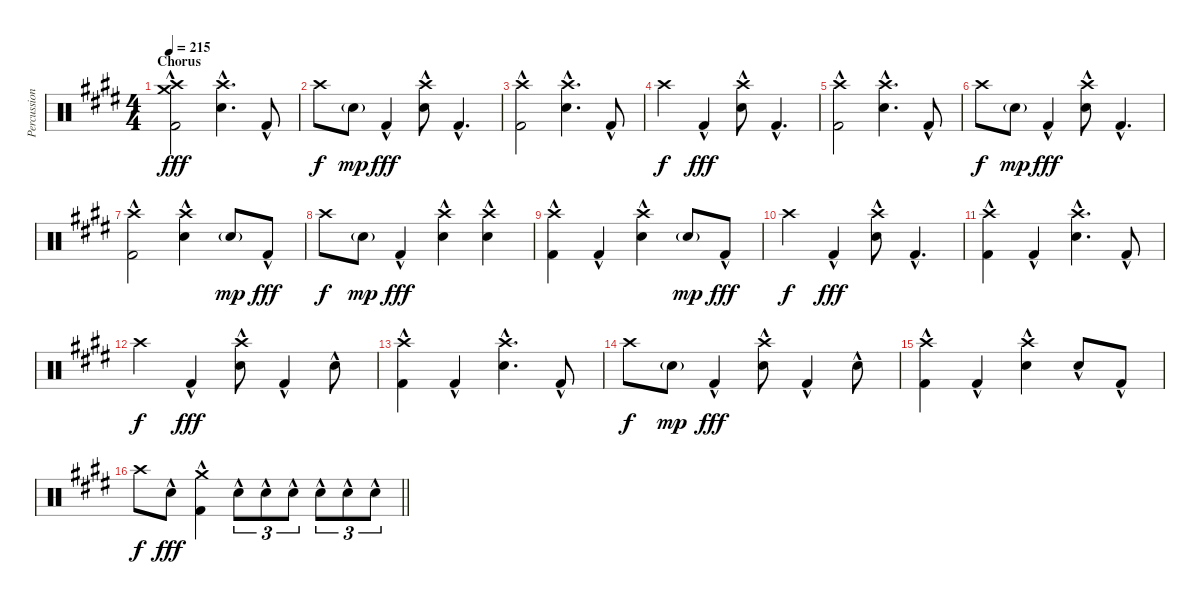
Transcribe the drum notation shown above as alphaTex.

\track ("Percussion" "Percussion") {instrument percussion}
\staff {score}
\articulation defaults
\ts (4 4)
\section ("" "Chorus")
\tempo 215
\clef neutral
\ks e
("Crash high (hit)" "Crash medium (hit)" "Kick (hit) 2"{hac}).2{dy fff} ("Crash high (hit)" "Electric Snare (hit)"{hac}).4{d} "Kick (hit) 2"{hac}.8 |
"Crash high (hit)".8{dy f} "Electric Snare (hit)"{g}.8{dy mp} "Kick (hit) 2"{hac}.4{dy fff} ("Crash high (hit)" "Electric Snare (hit)"{hac}).8 "Kick (hit) 2"{hac}.4{d} |
("Crash high (hit)" "Kick (hit) 2"{hac}).2 ("Crash high (hit)" "Electric Snare (hit)"{hac}).4{d} "Kick (hit) 2"{hac}.8 |
"Crash high (hit)".4{dy f} "Kick (hit) 2"{hac}.4{dy fff} ("Crash high (hit)" "Electric Snare (hit)"{hac}).8 "Kick (hit) 2"{hac}.4{d} |
("Crash high (hit)" "Kick (hit) 2"{hac}).2 ("Crash high (hit)" "Electric Snare (hit)"{hac}).4{d} "Kick (hit) 2"{hac}.8 |
"Crash high (hit)".8{dy f} "Electric Snare (hit)"{g}.8{dy mp} "Kick (hit) 2"{hac}.4{dy fff} ("Crash high (hit)" "Electric Snare (hit)"{hac}).8 "Kick (hit) 2"{hac}.4{d} |
("Crash high (hit)" "Kick (hit) 2"{hac}).2 ("Crash high (hit)" "Electric Snare (hit)"{hac}).4 "Electric Snare (hit)"{g}.8{dy mp} "Kick (hit) 2"{hac}.8{dy fff} |
"Crash high (hit)".8{dy f} "Electric Snare (hit)"{g}.8{dy mp} "Kick (hit) 2"{hac}.4{dy fff} ("Crash high (hit)" "Electric Snare (hit)"{hac}).4 ("Crash high (hit)" "Electric Snare (hit)"{hac}).4 |
("Crash high (hit)" "Kick (hit) 2"{hac}).4 "Kick (hit) 2"{hac}.4 ("Crash high (hit)" "Electric Snare (hit)"{hac}).4 "Electric Snare (hit)"{g}.8{dy mp} "Kick (hit) 2"{hac}.8{dy fff} |
"Crash high (hit)".4{dy f} "Kick (hit) 2"{hac}.4{dy fff} ("Crash high (hit)" "Electric Snare (hit)"{hac}).8 "Kick (hit) 2"{hac}.4{d} |
("Crash high (hit)" "Kick (hit) 2"{hac}).4 "Kick (hit) 2"{hac}.4 ("Crash high (hit)" "Electric Snare (hit)"{hac}).4{d} "Kick (hit) 2"{hac}.8 |
"Crash high (hit)".4{dy f} "Kick (hit) 2"{hac}.4{dy fff} ("Crash high (hit)" "Electric Snare (hit)"{hac}).8 "Kick (hit) 2"{hac}.4 "Electric Snare (hit)"{hac}.8 |
("Crash high (hit)" "Kick (hit) 2"{hac}).4 "Kick (hit) 2"{hac}.4 ("Crash high (hit)" "Electric Snare (hit)"{hac}).4{d} "Kick (hit) 2"{hac}.8 |
"Crash high (hit)".8{dy f} "Electric Snare (hit)"{g}.8{dy mp} "Kick (hit) 2"{hac}.4{dy fff} ("Crash high (hit)" "Electric Snare (hit)"{hac}).8 "Kick (hit) 2"{hac}.4 "Electric Snare (hit)"{hac}.8 |
("Crash high (hit)" "Kick (hit) 2"{hac}).4 "Kick (hit) 2"{hac}.4 ("Crash high (hit)" "Electric Snare (hit)"{hac}).4 "Electric Snare (hit)"{hac}.8 "Kick (hit) 2"{hac}.8 |
\barLineRight lightlight "Crash high (hit)".8{dy f} "Electric Snare (hit)"{hac}.8{dy fff}
("Crash medium (hit)" "Kick (hit) 2"{hac}).4 "Electric Snare (hit)"{hac}.8{tu (3 2)} "Electric Snare (hit)"{hac}.8{tu (3 2)} "Electric Snare (hit)"{hac}.8{tu (3 2)} "Electric Snare (hit)"{hac}.8{tu (3 2)} "Electric Snare (hit)"{hac}.8{tu (3 2)} "Electric Snare (hit)"{hac}.8{tu (3 2)}
